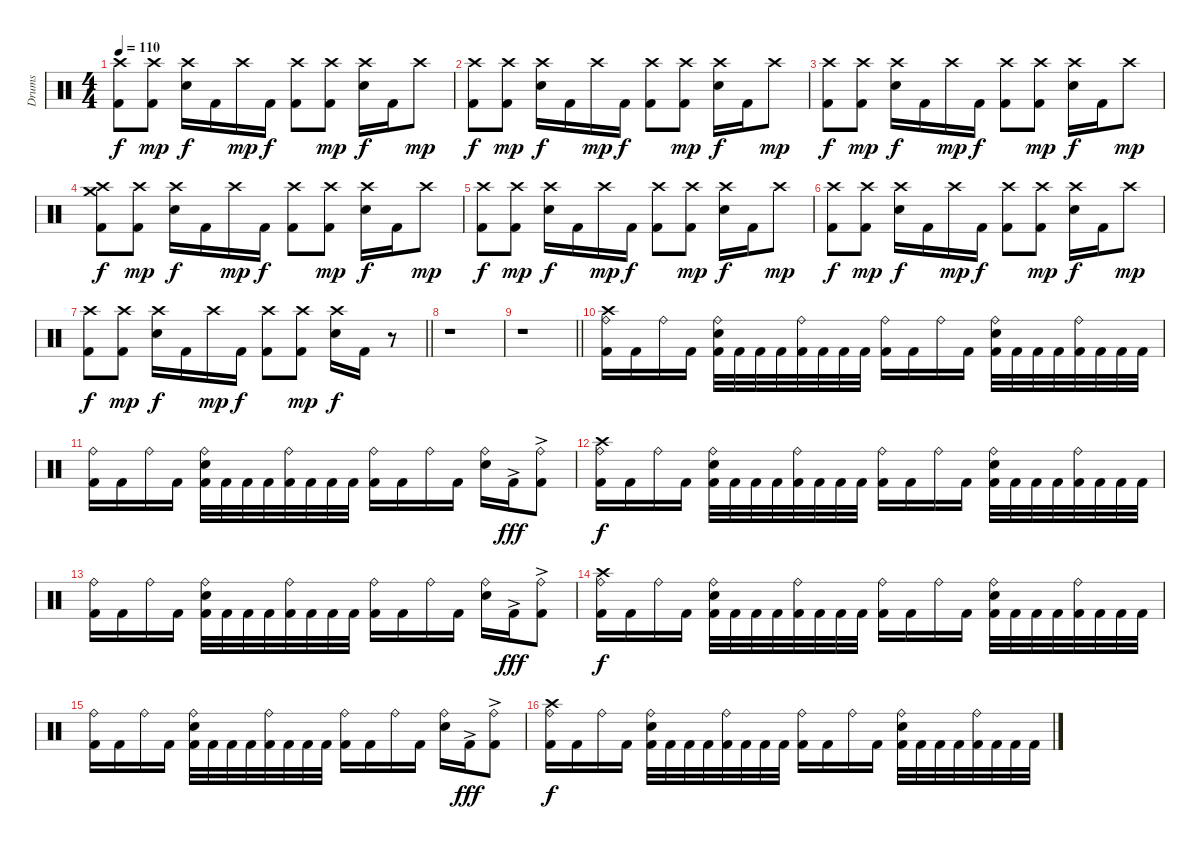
\track ("Drums" "Drums") {instrument percussion}
\staff {score}
\articulation defaults
\ts (4 4)
\tempo 110
\clef neutral
\ks c
("Crash high (hit)" "Kick (hit) 2").8{dy f} ("Crash high (hit)" "Kick (hit) 2").8{dy mp} ("Crash high (hit)" "Snare (hit) 2").16{dy f} "Kick (hit) 2".16 "Crash high (hit)".16{dy mp} "Kick (hit) 2".16{dy f} ("Crash high (hit)" "Kick (hit) 2").8 ("Crash high (hit)" "Kick (hit) 2").8{dy mp} ("Crash high (hit)" "Snare (hit) 2").16{dy f} "Kick (hit) 2".16 "Crash high (hit)".8{dy mp} |
("Crash high (hit)" "Kick (hit) 2").8{dy f} ("Crash high (hit)" "Kick (hit) 2").8{dy mp} ("Crash high (hit)" "Snare (hit) 2").16{dy f} "Kick (hit) 2".16 "Crash high (hit)".16{dy mp} "Kick (hit) 2".16{dy f} ("Crash high (hit)" "Kick (hit) 2").8 ("Crash high (hit)" "Kick (hit) 2").8{dy mp} ("Crash high (hit)" "Snare (hit) 2").16{dy f} "Kick (hit) 2".16 "Crash high (hit)".8{dy mp} |
("Crash high (hit)" "Kick (hit) 2").8{dy f} ("Crash high (hit)" "Kick (hit) 2").8{dy mp} ("Crash high (hit)" "Snare (hit) 2").16{dy f} "Kick (hit) 2".16 "Crash high (hit)".16{dy mp} "Kick (hit) 2".16{dy f} ("Crash high (hit)" "Kick (hit) 2").8 ("Crash high (hit)" "Kick (hit) 2").8{dy mp} ("Crash high (hit)" "Snare (hit) 2").16{dy f} "Kick (hit) 2".16 "Crash high (hit)".8{dy mp} |
("Crash high (hit)" "Crash medium (hit)" "Kick (hit) 2").8{dy f} ("Crash high (hit)" "Kick (hit) 2").8{dy mp} ("Crash high (hit)" "Snare (hit) 2").16{dy f} "Kick (hit) 2".16 "Crash high (hit)".16{dy mp} "Kick (hit) 2".16{dy f} ("Crash high (hit)" "Kick (hit) 2").8 ("Crash high (hit)" "Kick (hit) 2").8{dy mp} ("Crash high (hit)" "Snare (hit) 2").16{dy f} "Kick (hit) 2".16 "Crash high (hit)".8{dy mp} |
("Crash high (hit)" "Kick (hit) 2").8{dy f} ("Crash high (hit)" "Kick (hit) 2").8{dy mp} ("Crash high (hit)" "Snare (hit) 2").16{dy f} "Kick (hit) 2".16 "Crash high (hit)".16{dy mp} "Kick (hit) 2".16{dy f} ("Crash high (hit)" "Kick (hit) 2").8 ("Crash high (hit)" "Kick (hit) 2").8{dy mp} ("Crash high (hit)" "Snare (hit) 2").16{dy f} "Kick (hit) 2".16 "Crash high (hit)".8{dy mp} |
("Crash high (hit)" "Kick (hit) 2").8{dy f} ("Crash high (hit)" "Kick (hit) 2").8{dy mp} ("Crash high (hit)" "Snare (hit) 2").16{dy f} "Kick (hit) 2".16 "Crash high (hit)".16{dy mp} "Kick (hit) 2".16{dy f} ("Crash high (hit)" "Kick (hit) 2").8 ("Crash high (hit)" "Kick (hit) 2").8{dy mp} ("Crash high (hit)" "Snare (hit) 2").16{dy f} "Kick (hit) 2".16 "Crash high (hit)".8{dy mp} |
\barLineRight lightlight
("Crash high (hit)" "Kick (hit) 2").8{dy f} ("Crash high (hit)" "Kick (hit) 2").8{dy mp} ("Crash high (hit)" "Snare (hit) 2").16{dy f} "Kick (hit) 2".16 "Crash high (hit)".16{dy mp} "Kick (hit) 2".16{dy f} ("Crash high (hit)" "Kick (hit) 2").8 ("Crash high (hit)" "Kick (hit) 2").8{dy mp} ("Crash high (hit)" "Snare (hit) 2").16{dy f} "Kick (hit) 2".16 r.8 |
r.1 |
\barLineRight lightlight
r.1 |
("Crash high (hit)" "Ride (bell)" "Kick (hit) 2").16 "Kick (hit) 2".16 "Ride (bell)".16 "Kick (hit) 2".16 ("Ride (bell)" "Snare (hit) 2" "Kick (hit) 2").32 "Kick (hit) 2".32 "Kick (hit) 2".32 "Kick (hit) 2".32 ("Ride (bell)" "Kick (hit) 2").32 "Kick (hit) 2".32 "Kick (hit) 2".32 "Kick (hit) 2".32 ("Ride (bell)" "Kick (hit) 2").16 "Kick (hit) 2".16 "Ride (bell)".16 "Kick (hit) 2".16 ("Ride (bell)" "Snare (hit) 2" "Kick (hit) 2").32 "Kick (hit) 2".32 "Kick (hit) 2".32 "Kick (hit) 2".32 ("Ride (bell)" "Kick (hit) 2").32 "Kick (hit) 2".32 "Kick (hit) 2".32 "Kick (hit) 2".32 |
("Ride (bell)" "Kick (hit) 2").16 "Kick (hit) 2".16 "Ride (bell)".16 "Kick (hit) 2".16 ("Ride (bell)" "Snare (hit) 2" "Kick (hit) 2").32 "Kick (hit) 2".32 "Kick (hit) 2".32 "Kick (hit) 2".32 ("Ride (bell)" "Kick (hit) 2").32 "Kick (hit) 2".32 "Kick (hit) 2".32 "Kick (hit) 2".32 ("Ride (bell)" "Kick (hit) 2").16 "Kick (hit) 2".16 "Ride (bell)".16 "Kick (hit) 2".16 ("Ride (bell)" "Snare (hit) 2").16 "Kick (hit) 2"{ac}.16{dy fff} ("Ride (bell)" "Kick (hit) 2"{ac}).8 |
("Crash high (hit)" "Ride (bell)" "Kick (hit) 2").16{dy f} "Kick (hit) 2".16 "Ride (bell)".16 "Kick (hit) 2".16 ("Ride (bell)" "Snare (hit) 2" "Kick (hit) 2").32 "Kick (hit) 2".32 "Kick (hit) 2".32 "Kick (hit) 2".32 ("Ride (bell)" "Kick (hit) 2").32 "Kick (hit) 2".32 "Kick (hit) 2".32 "Kick (hit) 2".32 ("Ride (bell)" "Kick (hit) 2").16 "Kick (hit) 2".16 "Ride (bell)".16 "Kick (hit) 2".16 ("Ride (bell)" "Snare (hit) 2" "Kick (hit) 2").32 "Kick (hit) 2".32 "Kick (hit) 2".32 "Kick (hit) 2".32 ("Ride (bell)" "Kick (hit) 2").32 "Kick (hit) 2".32 "Kick (hit) 2".32 "Kick (hit) 2".32 |
("Ride (bell)" "Kick (hit) 2").16 "Kick (hit) 2".16 "Ride (bell)".16 "Kick (hit) 2".16 ("Ride (bell)" "Snare (hit) 2" "Kick (hit) 2").32 "Kick (hit) 2".32 "Kick (hit) 2".32 "Kick (hit) 2".32 ("Ride (bell)" "Kick (hit) 2").32 "Kick (hit) 2".32 "Kick (hit) 2".32 "Kick (hit) 2".32 ("Ride (bell)" "Kick (hit) 2").16 "Kick (hit) 2".16 "Ride (bell)".16 "Kick (hit) 2".16 ("Ride (bell)" "Snare (hit) 2").16 "Kick (hit) 2"{ac}.16{dy fff} ("Ride (bell)" "Kick (hit) 2"{ac}).8 |
("Crash high (hit)" "Ride (bell)" "Kick (hit) 2").16{dy f} "Kick (hit) 2".16 "Ride (bell)".16 "Kick (hit) 2".16 ("Ride (bell)" "Snare (hit) 2" "Kick (hit) 2").32 "Kick (hit) 2".32 "Kick (hit) 2".32 "Kick (hit) 2".32 ("Ride (bell)" "Kick (hit) 2").32 "Kick (hit) 2".32 "Kick (hit) 2".32 "Kick (hit) 2".32 ("Ride (bell)" "Kick (hit) 2").16 "Kick (hit) 2".16 "Ride (bell)".16 "Kick (hit) 2".16 ("Ride (bell)" "Snare (hit) 2" "Kick (hit) 2").32 "Kick (hit) 2".32 "Kick (hit) 2".32 "Kick (hit) 2".32 ("Ride (bell)" "Kick (hit) 2").32 "Kick (hit) 2".32 "Kick (hit) 2".32 "Kick (hit) 2".32 |
("Ride (bell)" "Kick (hit) 2").16 "Kick (hit) 2".16 "Ride (bell)".16 "Kick (hit) 2".16 ("Ride (bell)" "Snare (hit) 2" "Kick (hit) 2").32 "Kick (hit) 2".32 "Kick (hit) 2".32 "Kick (hit) 2".32 ("Ride (bell)" "Kick (hit) 2").32 "Kick (hit) 2".32 "Kick (hit) 2".32 "Kick (hit) 2".32 ("Ride (bell)" "Kick (hit) 2").16 "Kick (hit) 2".16 "Ride (bell)".16 "Kick (hit) 2".16 ("Ride (bell)" "Snare (hit) 2").16 "Kick (hit) 2"{ac}.16{dy fff} ("Ride (bell)" "Kick (hit) 2"{ac}).8 |
("Crash high (hit)" "Ride (bell)" "Kick (hit) 2").16{dy f} "Kick (hit) 2".16 "Ride (bell)".16 "Kick (hit) 2".16 ("Ride (bell)" "Snare (hit) 2" "Kick (hit) 2").32 "Kick (hit) 2".32 "Kick (hit) 2".32 "Kick (hit) 2".32 ("Ride (bell)" "Kick (hit) 2").32 "Kick (hit) 2".32 "Kick (hit) 2".32 "Kick (hit) 2".32 ("Ride (bell)" "Kick (hit) 2").16 "Kick (hit) 2".16 "Ride (bell)".16 "Kick (hit) 2".16 ("Ride (bell)" "Snare (hit) 2" "Kick (hit) 2").32 "Kick (hit) 2".32 "Kick (hit) 2".32 "Kick (hit) 2".32 ("Ride (bell)" "Kick (hit) 2").32 "Kick (hit) 2".32 "Kick (hit) 2".32 "Kick (hit) 2".32
